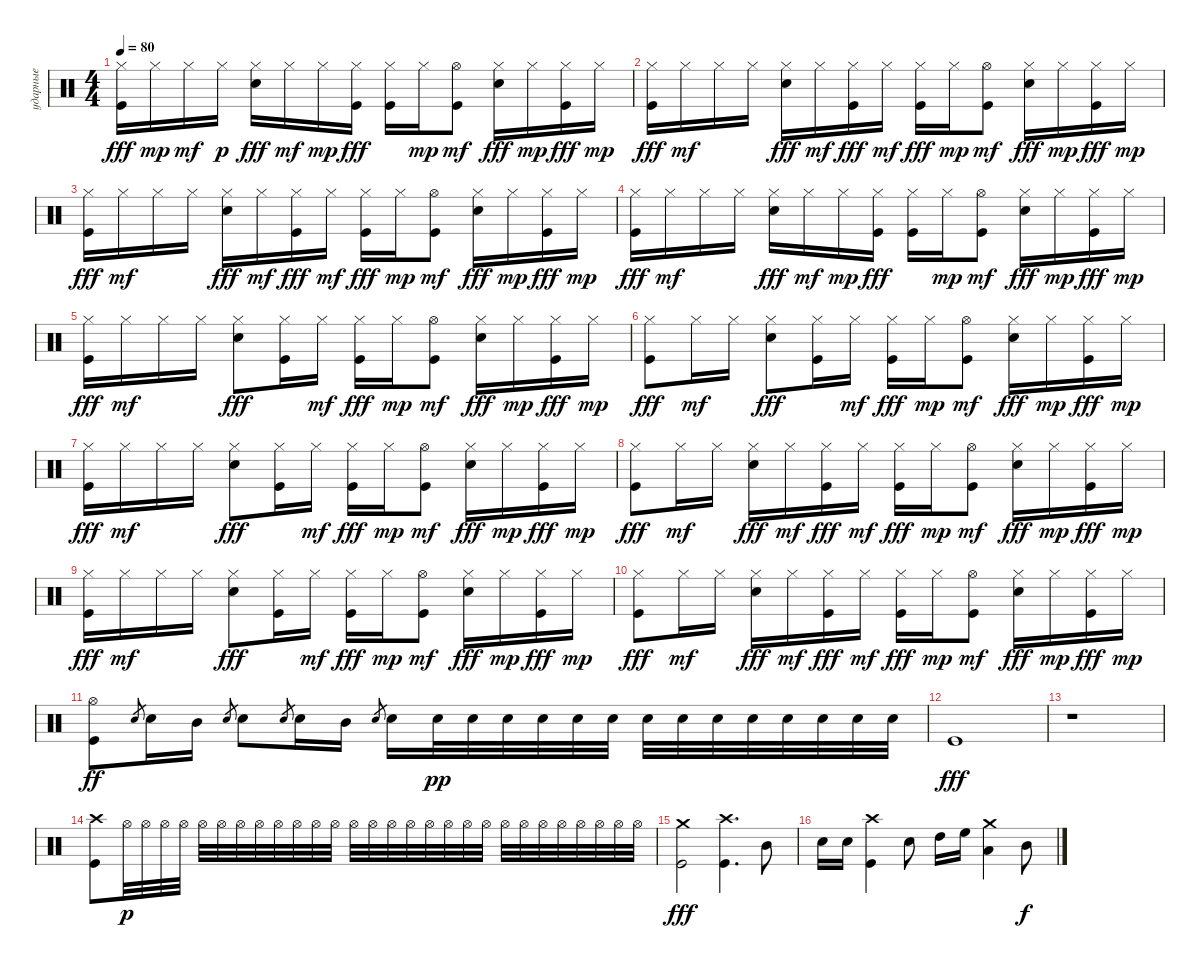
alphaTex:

\track ("ударные" "ударные") {instrument percussion}
\staff {score}
\articulation defaults
\ts (4 4)
\tempo 80
\clef neutral
\ks aminor
("Kick (hit)" "Hi-Hat (closed)").16{dy fff} "Hi-Hat (closed)".16{dy mp} "Hi-Hat (closed)".16{dy mf} "Hi-Hat (closed)".16{dy p} ("Snare (hit) 2" "Hi-Hat (closed)").16{dy fff} "Hi-Hat (closed)".16{dy mf} "Hi-Hat (closed)".16{dy mp} ("Hi-Hat (closed)" "Kick (hit)").16{dy fff} ("Kick (hit)" "Hi-Hat (closed)").16 "Hi-Hat (closed)".16{dy mp} ("Kick (hit)" "Hi-Hat (open)").8{dy mf} ("Snare (hit) 2" "Hi-Hat (closed)").16{dy fff} "Hi-Hat (closed)".16{dy mp} ("Hi-Hat (closed)" "Kick (hit)").16{dy fff} "Hi-Hat (closed)".16{dy mp} |
("Kick (hit)" "Hi-Hat (closed)").16{dy fff} "Hi-Hat (closed)".16{dy mf} "Hi-Hat (closed)".16 "Hi-Hat (closed)".16 ("Snare (hit) 2" "Hi-Hat (closed)").16{dy fff} "Hi-Hat (closed)".16{dy mf} ("Hi-Hat (closed)" "Kick (hit)").16{dy fff} "Hi-Hat (closed)".16{dy mf} ("Kick (hit)" "Hi-Hat (closed)").16{dy fff} "Hi-Hat (closed)".16{dy mp} ("Kick (hit)" "Hi-Hat (open)").8{dy mf} ("Snare (hit) 2" "Hi-Hat (closed)").16{dy fff} "Hi-Hat (closed)".16{dy mp} ("Hi-Hat (closed)" "Kick (hit)").16{dy fff} "Hi-Hat (closed)".16{dy mp} |
("Kick (hit)" "Hi-Hat (closed)").16{dy fff} "Hi-Hat (closed)".16{dy mf} "Hi-Hat (closed)".16 "Hi-Hat (closed)".16 ("Snare (hit) 2" "Hi-Hat (closed)").16{dy fff} "Hi-Hat (closed)".16{dy mf} ("Hi-Hat (closed)" "Kick (hit)").16{dy fff} "Hi-Hat (closed)".16{dy mf} ("Kick (hit)" "Hi-Hat (closed)").16{dy fff} "Hi-Hat (closed)".16{dy mp} ("Kick (hit)" "Hi-Hat (open)").8{dy mf} ("Snare (hit) 2" "Hi-Hat (closed)").16{dy fff} "Hi-Hat (closed)".16{dy mp} ("Hi-Hat (closed)" "Kick (hit)").16{dy fff} "Hi-Hat (closed)".16{dy mp} |
("Kick (hit)" "Hi-Hat (closed)").16{dy fff} "Hi-Hat (closed)".16{dy mf} "Hi-Hat (closed)".16 "Hi-Hat (closed)".16 ("Snare (hit) 2" "Hi-Hat (closed)").16{dy fff} "Hi-Hat (closed)".16{dy mf} "Hi-Hat (closed)".16{dy mp} ("Hi-Hat (closed)" "Kick (hit)").16{dy fff} ("Kick (hit)" "Hi-Hat (closed)").16 "Hi-Hat (closed)".16{dy mp} ("Kick (hit)" "Hi-Hat (open)").8{dy mf} ("Snare (hit) 2" "Hi-Hat (closed)").16{dy fff} "Hi-Hat (closed)".16{dy mp} ("Hi-Hat (closed)" "Kick (hit)").16{dy fff} "Hi-Hat (closed)".16{dy mp} |
("Kick (hit)" "Hi-Hat (closed)").16{dy fff} "Hi-Hat (closed)".16{dy mf} "Hi-Hat (closed)".16 "Hi-Hat (closed)".16 ("Snare (hit) 2" "Hi-Hat (closed)").8{dy fff} ("Hi-Hat (closed)" "Kick (hit)").16 "Hi-Hat (closed)".16{dy mf} ("Kick (hit)" "Hi-Hat (closed)").16{dy fff} "Hi-Hat (closed)".16{dy mp} ("Kick (hit)" "Hi-Hat (open)").8{dy mf} ("Snare (hit) 2" "Hi-Hat (closed)").16{dy fff} "Hi-Hat (closed)".16{dy mp} ("Hi-Hat (closed)" "Kick (hit)").16{dy fff} "Hi-Hat (closed)".16{dy mp} |
("Kick (hit)" "Hi-Hat (closed)").8{dy fff} "Hi-Hat (closed)".16{dy mf} "Hi-Hat (closed)".16 ("Snare (hit) 2" "Hi-Hat (closed)").8{dy fff} ("Hi-Hat (closed)" "Kick (hit)").16 "Hi-Hat (closed)".16{dy mf} ("Kick (hit)" "Hi-Hat (closed)").16{dy fff} "Hi-Hat (closed)".16{dy mp} ("Kick (hit)" "Hi-Hat (open)").8{dy mf} ("Snare (hit) 2" "Hi-Hat (closed)").16{dy fff} "Hi-Hat (closed)".16{dy mp} ("Hi-Hat (closed)" "Kick (hit)").16{dy fff} "Hi-Hat (closed)".16{dy mp} |
("Kick (hit)" "Hi-Hat (closed)").16{dy fff} "Hi-Hat (closed)".16{dy mf} "Hi-Hat (closed)".16 "Hi-Hat (closed)".16 ("Snare (hit) 2" "Hi-Hat (closed)").8{dy fff} ("Hi-Hat (closed)" "Kick (hit)").16 "Hi-Hat (closed)".16{dy mf} ("Kick (hit)" "Hi-Hat (closed)").16{dy fff} "Hi-Hat (closed)".16{dy mp} ("Kick (hit)" "Hi-Hat (open)").8{dy mf} ("Snare (hit) 2" "Hi-Hat (closed)").16{dy fff} "Hi-Hat (closed)".16{dy mp} ("Hi-Hat (closed)" "Kick (hit)").16{dy fff} "Hi-Hat (closed)".16{dy mp} |
("Kick (hit)" "Hi-Hat (closed)").8{dy fff} "Hi-Hat (closed)".16{dy mf} "Hi-Hat (closed)".16 ("Snare (hit) 2" "Hi-Hat (closed)").16{dy fff} "Hi-Hat (closed)".16{dy mf} ("Hi-Hat (closed)" "Kick (hit)").16{dy fff} "Hi-Hat (closed)".16{dy mf} ("Kick (hit)" "Hi-Hat (closed)").16{dy fff} "Hi-Hat (closed)".16{dy mp} ("Kick (hit)" "Hi-Hat (open)").8{dy mf} ("Snare (hit) 2" "Hi-Hat (closed)").16{dy fff} "Hi-Hat (closed)".16{dy mp} ("Hi-Hat (closed)" "Kick (hit)").16{dy fff} "Hi-Hat (closed)".16{dy mp} |
("Kick (hit)" "Hi-Hat (closed)").16{dy fff} "Hi-Hat (closed)".16{dy mf} "Hi-Hat (closed)".16 "Hi-Hat (closed)".16 ("Snare (hit) 2" "Hi-Hat (closed)").8{dy fff} ("Hi-Hat (closed)" "Kick (hit)").16 "Hi-Hat (closed)".16{dy mf} ("Kick (hit)" "Hi-Hat (closed)").16{dy fff} "Hi-Hat (closed)".16{dy mp} ("Kick (hit)" "Hi-Hat (open)").8{dy mf} ("Snare (hit) 2" "Hi-Hat (closed)").16{dy fff} "Hi-Hat (closed)".16{dy mp} ("Hi-Hat (closed)" "Kick (hit)").16{dy fff} "Hi-Hat (closed)".16{dy mp} |
("Kick (hit)" "Hi-Hat (closed)").8{dy fff} "Hi-Hat (closed)".16{dy mf} "Hi-Hat (closed)".16 ("Snare (hit) 2" "Hi-Hat (closed)").16{dy fff} "Hi-Hat (closed)".16{dy mf} ("Hi-Hat (closed)" "Kick (hit)").16{dy fff} "Hi-Hat (closed)".16{dy mf} ("Kick (hit)" "Hi-Hat (closed)").16{dy fff} "Hi-Hat (closed)".16{dy mp} ("Kick (hit)" "Hi-Hat (open)").8{dy mf} ("Snare (hit) 2" "Hi-Hat (closed)").16{dy fff} "Hi-Hat (closed)".16{dy mp} ("Hi-Hat (closed)" "Kick (hit)").16{dy fff} "Hi-Hat (closed)".16{dy mp} |
("Kick (hit)" "Hi-Hat (open)").8{dy ff} "Snare (hit) 2"{h}.8{gr} "Snare (hit) 2".16 "Mid Tom (hit)".16 "Snare (hit) 2"{h}.8{gr} "Snare (hit) 2".8 "Snare (hit) 2"{h}.8{gr} "Snare (hit) 2".16 "Mid Tom (hit)".16 "Snare (hit) 2"{h}.8{gr} "Snare (hit) 2".16 "Snare (hit) 2".32{dy pp} "Snare (hit) 2".32 "Snare (hit) 2".32 "Snare (hit) 2".32 "Snare (hit) 2".32 "Snare (hit) 2".32 "Snare (hit) 2".32 "Snare (hit) 2".32 "Snare (hit) 2".32 "Snare (hit) 2".32 "Snare (hit) 2".32 "Snare (hit) 2".32 "Snare (hit) 2".32 "Snare (hit) 2".32 |
"Kick (hit)".1{dy fff} |
r.1 |
("Kick (hit)" "Crash high (hit)").8 "Hi-Hat (open)".32{dy p} "Hi-Hat (open)".32 "Hi-Hat (open)".32 "Hi-Hat (open)".32 "Hi-Hat (open)".32 "Hi-Hat (open)".32 "Hi-Hat (open)".32 "Hi-Hat (open)".32 "Hi-Hat (open)".32 "Hi-Hat (open)".32 "Hi-Hat (open)".32 "Hi-Hat (open)".32 "Hi-Hat (open)".32 "Hi-Hat (open)".32 "Hi-Hat (open)".32 "Hi-Hat (open)".32 "Hi-Hat (open)".32 "Hi-Hat (open)".32 "Hi-Hat (open)".32 "Hi-Hat (open)".32 "Hi-Hat (open)".32 "Hi-Hat (open)".32 "Hi-Hat (open)".32 "Hi-Hat (open)".32 "Hi-Hat (open)".32 "Hi-Hat (open)".32 "Hi-Hat (open)".32 "Hi-Hat (open)".32 |
("Kick (hit)" "Crash medium (hit)").2{dy fff} ("Kick (hit)" "Crash high (hit)").4{d} "Mid Tom (hit)".8 |
"Snare (hit) 2".16 "Snare (hit) 2".16 ("Kick (hit)" "Crash high (hit)").4 "Snare (hit) 2".8 "High Tom (hit)".16 "High Floor Tom (hit)".16 ("Low Tom (hit)" "Crash medium (hit)").4 "Mid Tom (hit)".8{dy f}
